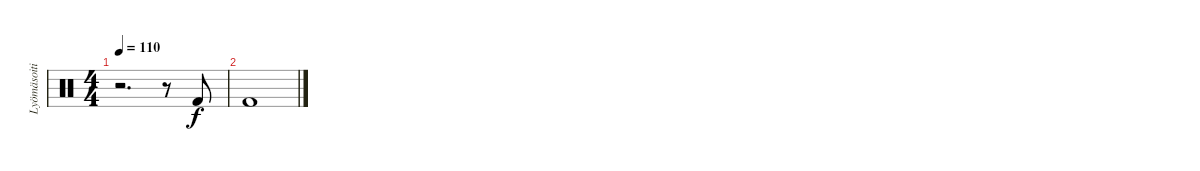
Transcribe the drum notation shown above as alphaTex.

\track ("Lyömäsoitin" "Lyömäsoiti") {instrument percussion}
\staff {score}
\articulation defaults
\ts (4 4)
\tempo 110
\clef neutral
\ks c
r.2{d dy mp} r.8 "Kick (hit) 2".8{dy f} |
"Kick (hit) 2".1
